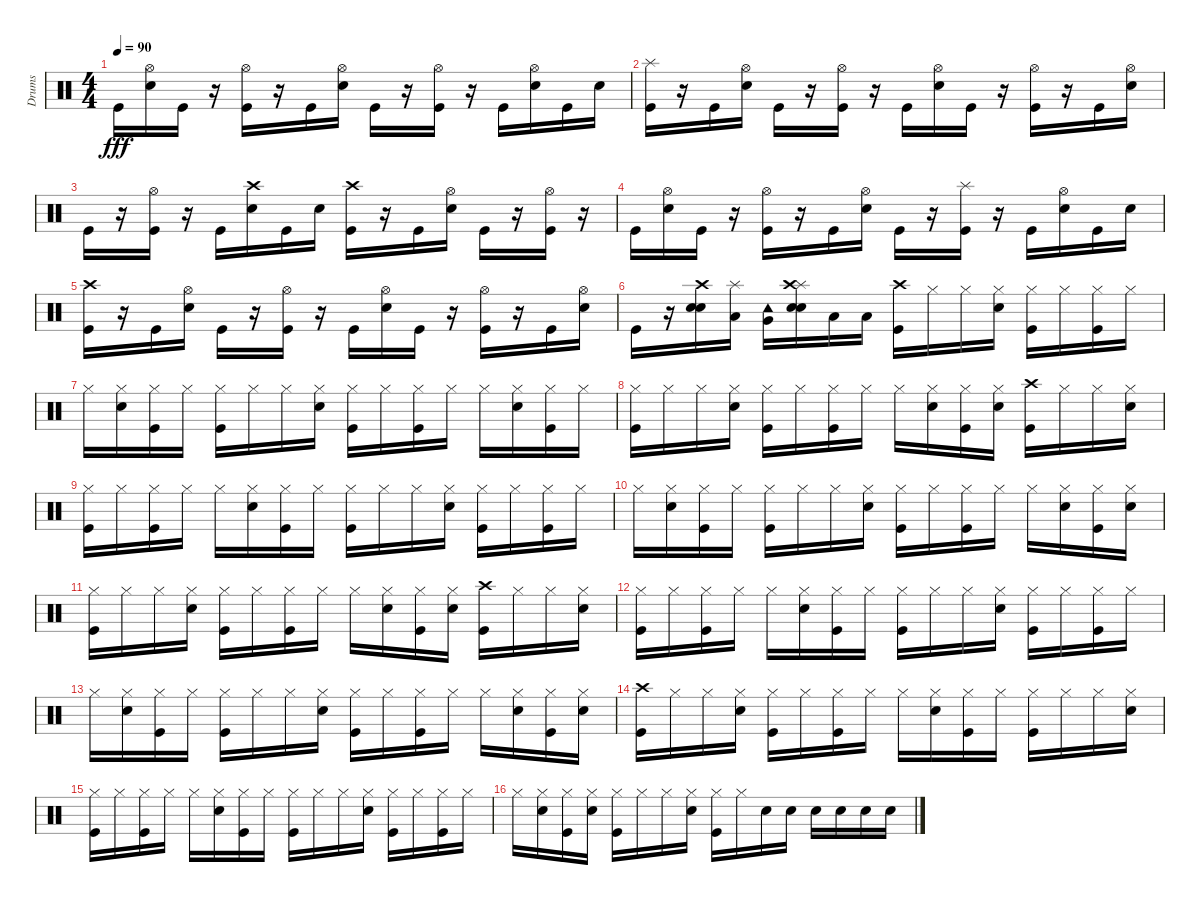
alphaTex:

\track ("Drums" "Drums") {instrument percussion}
\staff {score}
\articulation defaults
\ts (4 4)
\tempo 90
\clef neutral
\ks c "Kick (hit)".16{dy fff}
("Hi-Hat (open)" "Snare (hit) 2").16 "Kick (hit)".16 r.16 ("Hi-Hat (open)" "Kick (hit)").16 r.16 "Kick (hit)".16 ("Hi-Hat (open)" "Snare (hit) 2").16 "Kick (hit)".16 r.16 ("Hi-Hat (open)" "Kick (hit)").16 r.16 "Kick (hit)".16 ("Hi-Hat (open)" "Snare (hit) 2").16 "Kick (hit)".16 "Snare (hit) 2".16 |
("Splash (hit)" "Kick (hit)").16 r.16 "Kick (hit)".16 ("Hi-Hat (open)" "Snare (hit) 2").16 "Kick (hit)".16 r.16 ("Hi-Hat (open)" "Kick (hit)").16 r.16 "Kick (hit)".16 ("Hi-Hat (open)" "Snare (hit) 2").16 "Kick (hit)".16 r.16 ("Hi-Hat (open)" "Kick (hit)").16 r.16 "Kick (hit)".16 ("Hi-Hat (open)" "Snare (hit) 2").16 |
"Kick (hit)".16 r.16 ("Hi-Hat (open)" "Kick (hit)").16 r.16 "Kick (hit)".16 ("Crash high (hit)" "Snare (hit) 2").16 "Kick (hit)".16 "Snare (hit) 2".16 ("Kick (hit)" "Crash high (hit)").16 r.16 "Kick (hit)".16 ("Hi-Hat (open)" "Snare (hit) 2").16 "Kick (hit)".16 r.16 ("Hi-Hat (open)" "Kick (hit)").16 r.16 |
"Kick (hit)".16 ("Hi-Hat (open)" "Snare (hit) 2").16 "Kick (hit)".16 r.16 ("Hi-Hat (open)" "Kick (hit)").16 r.16 "Kick (hit)".16 ("Hi-Hat (open)" "Snare (hit) 2").16 "Kick (hit)".16 r.16 ("Splash (hit)" "Kick (hit)").16 r.16 "Kick (hit)".16 ("Hi-Hat (open)" "Snare (hit) 2").16 "Kick (hit)".16 "Snare (hit) 2".16 |
("Crash high (hit)" "Kick (hit)").16 r.16 "Kick (hit)".16 ("Hi-Hat (open)" "Snare (hit) 2").16 "Kick (hit)".16 r.16 ("Hi-Hat (open)" "Kick (hit)").16 r.16 "Kick (hit)".16 ("Hi-Hat (open)" "Snare (hit) 2").16 "Kick (hit)".16 r.16 ("Hi-Hat (open)" "Kick (hit)").16 r.16 "Kick (hit)".16 ("Hi-Hat (open)" "Snare (hit) 2").16 |
"Kick (hit)".16 r.16 ("Snare (hit) 2" "Crash high (hit)" "Snare (hit) 2").16 ("Splash (hit)" "Low Tom (hit)").16 ("Tambourine (hit)" "Very Low Tom (hit)").16 ("Splash (hit)" "Crash high (hit)" "Snare (hit) 2" "Snare (hit) 2").16 "Low Floor Tom (hit)".16 "Low Floor Tom (hit)".16 ("Kick (hit)" "Crash high (hit)").16 "Hi-Hat (closed)".16 "Hi-Hat (closed)".16 ("Hi-Hat (closed)" "Snare (hit) 2").16 ("Hi-Hat (closed)" "Kick (hit)").16 "Hi-Hat (closed)".16 ("Hi-Hat (closed)" "Kick (hit)").16 "Hi-Hat (closed)".16 |
"Hi-Hat (closed)".16 ("Hi-Hat (closed)" "Snare (hit) 2").16 ("Hi-Hat (closed)" "Kick (hit)").16 "Hi-Hat (closed)".16 ("Kick (hit)" "Hi-Hat (closed)").16 "Hi-Hat (closed)".16 "Hi-Hat (closed)".16 ("Hi-Hat (closed)" "Snare (hit) 2").16 ("Hi-Hat (closed)" "Kick (hit)").16 "Hi-Hat (closed)".16 ("Hi-Hat (closed)" "Kick (hit)").16 "Hi-Hat (closed)".16 "Hi-Hat (closed)".16 ("Hi-Hat (closed)" "Snare (hit) 2").16 ("Hi-Hat (closed)" "Kick (hit)").16 "Hi-Hat (closed)".16 |
("Hi-Hat (closed)" "Kick (hit)").16 "Hi-Hat (closed)".16 "Hi-Hat (closed)".16 ("Hi-Hat (closed)" "Snare (hit) 2").16 ("Hi-Hat (closed)" "Kick (hit)").16 "Hi-Hat (closed)".16 ("Hi-Hat (closed)" "Kick (hit)").16 "Hi-Hat (closed)".16 "Hi-Hat (closed)".16 ("Hi-Hat (closed)" "Snare (hit) 2").16 ("Hi-Hat (closed)" "Kick (hit)").16 ("Snare (hit) 2" "Hi-Hat (closed)").16 ("Kick (hit)" "Crash high (hit)").16 "Hi-Hat (closed)".16 "Hi-Hat (closed)".16 ("Hi-Hat (closed)" "Snare (hit) 2").16 |
("Hi-Hat (closed)" "Kick (hit)").16 "Hi-Hat (closed)".16 ("Hi-Hat (closed)" "Kick (hit)").16 "Hi-Hat (closed)".16 "Hi-Hat (closed)".16 ("Hi-Hat (closed)" "Snare (hit) 2").16 ("Hi-Hat (closed)" "Kick (hit)").16 "Hi-Hat (closed)".16 ("Kick (hit)" "Hi-Hat (closed)").16 "Hi-Hat (closed)".16 "Hi-Hat (closed)".16 ("Hi-Hat (closed)" "Snare (hit) 2").16 ("Hi-Hat (closed)" "Kick (hit)").16 "Hi-Hat (closed)".16 ("Hi-Hat (closed)" "Kick (hit)").16 "Hi-Hat (closed)".16 |
"Hi-Hat (closed)".16 ("Hi-Hat (closed)" "Snare (hit) 2").16 ("Hi-Hat (closed)" "Kick (hit)").16 "Hi-Hat (closed)".16 ("Hi-Hat (closed)" "Kick (hit)").16 "Hi-Hat (closed)".16 "Hi-Hat (closed)".16 ("Hi-Hat (closed)" "Snare (hit) 2").16 ("Hi-Hat (closed)" "Kick (hit)").16 "Hi-Hat (closed)".16 ("Hi-Hat (closed)" "Kick (hit)").16 "Hi-Hat (closed)".16 "Hi-Hat (closed)".16 ("Hi-Hat (closed)" "Snare (hit) 2").16 ("Hi-Hat (closed)" "Kick (hit)").16 ("Snare (hit) 2" "Hi-Hat (closed)").16 |
("Hi-Hat (closed)" "Kick (hit)").16 "Hi-Hat (closed)".16 "Hi-Hat (closed)".16 ("Hi-Hat (closed)" "Snare (hit) 2").16 ("Hi-Hat (closed)" "Kick (hit)").16 "Hi-Hat (closed)".16 ("Hi-Hat (closed)" "Kick (hit)").16 "Hi-Hat (closed)".16 "Hi-Hat (closed)".16 ("Hi-Hat (closed)" "Snare (hit) 2").16 ("Hi-Hat (closed)" "Kick (hit)").16 ("Snare (hit) 2" "Hi-Hat (closed)").16 ("Kick (hit)" "Crash high (hit)").16 "Hi-Hat (closed)".16 "Hi-Hat (closed)".16 ("Hi-Hat (closed)" "Snare (hit) 2").16 |
("Hi-Hat (closed)" "Kick (hit)").16 "Hi-Hat (closed)".16 ("Hi-Hat (closed)" "Kick (hit)").16 "Hi-Hat (closed)".16 "Hi-Hat (closed)".16 ("Hi-Hat (closed)" "Snare (hit) 2").16 ("Hi-Hat (closed)" "Kick (hit)").16 "Hi-Hat (closed)".16 ("Kick (hit)" "Hi-Hat (closed)").16 "Hi-Hat (closed)".16 "Hi-Hat (closed)".16 ("Hi-Hat (closed)" "Snare (hit) 2").16 ("Hi-Hat (closed)" "Kick (hit)").16 "Hi-Hat (closed)".16 ("Hi-Hat (closed)" "Kick (hit)").16 "Hi-Hat (closed)".16 |
"Hi-Hat (closed)".16 ("Hi-Hat (closed)" "Snare (hit) 2").16 ("Hi-Hat (closed)" "Kick (hit)").16 "Hi-Hat (closed)".16 ("Hi-Hat (closed)" "Kick (hit)").16 "Hi-Hat (closed)".16 "Hi-Hat (closed)".16 ("Hi-Hat (closed)" "Snare (hit) 2").16 ("Hi-Hat (closed)" "Kick (hit)").16 "Hi-Hat (closed)".16 ("Hi-Hat (closed)" "Kick (hit)").16 "Hi-Hat (closed)".16 "Hi-Hat (closed)".16 ("Hi-Hat (closed)" "Snare (hit) 2").16 ("Hi-Hat (closed)" "Kick (hit)").16 ("Snare (hit) 2" "Hi-Hat (closed)").16 |
("Kick (hit)" "Crash high (hit)").16 "Hi-Hat (closed)".16 "Hi-Hat (closed)".16 ("Hi-Hat (closed)" "Snare (hit) 2").16 ("Hi-Hat (closed)" "Kick (hit)").16 "Hi-Hat (closed)".16 ("Hi-Hat (closed)" "Kick (hit)").16 "Hi-Hat (closed)".16 "Hi-Hat (closed)".16 ("Hi-Hat (closed)" "Snare (hit) 2").16 ("Hi-Hat (closed)" "Kick (hit)").16 "Hi-Hat (closed)".16 ("Kick (hit)" "Hi-Hat (closed)").16 "Hi-Hat (closed)".16 "Hi-Hat (closed)".16 ("Hi-Hat (closed)" "Snare (hit) 2").16 |
("Hi-Hat (closed)" "Kick (hit)").16 "Hi-Hat (closed)".16 ("Hi-Hat (closed)" "Kick (hit)").16 "Hi-Hat (closed)".16 "Hi-Hat (closed)".16 ("Hi-Hat (closed)" "Snare (hit) 2").16 ("Hi-Hat (closed)" "Kick (hit)").16 "Hi-Hat (closed)".16 ("Hi-Hat (closed)" "Kick (hit)").16 "Hi-Hat (closed)".16 "Hi-Hat (closed)".16 ("Hi-Hat (closed)" "Snare (hit) 2").16 ("Hi-Hat (closed)" "Kick (hit)").16 "Hi-Hat (closed)".16 ("Hi-Hat (closed)" "Kick (hit)").16 "Hi-Hat (closed)".16 |
"Hi-Hat (closed)".16 ("Hi-Hat (closed)" "Snare (hit) 2").16 ("Hi-Hat (closed)" "Kick (hit)").16 ("Snare (hit) 2" "Hi-Hat (closed)").16 ("Hi-Hat (closed)" "Kick (hit)").16 "Hi-Hat (closed)".16 "Hi-Hat (closed)".16 ("Hi-Hat (closed)" "Snare (hit) 2").16 ("Hi-Hat (closed)" "Kick (hit)").16 "Hi-Hat (closed)".16 "Snare (hit) 2".16 "Snare (hit) 2".16 "Snare (hit) 2".16 "Snare (hit) 2".16 "Snare (hit) 2".16 "Snare (hit) 2".16
